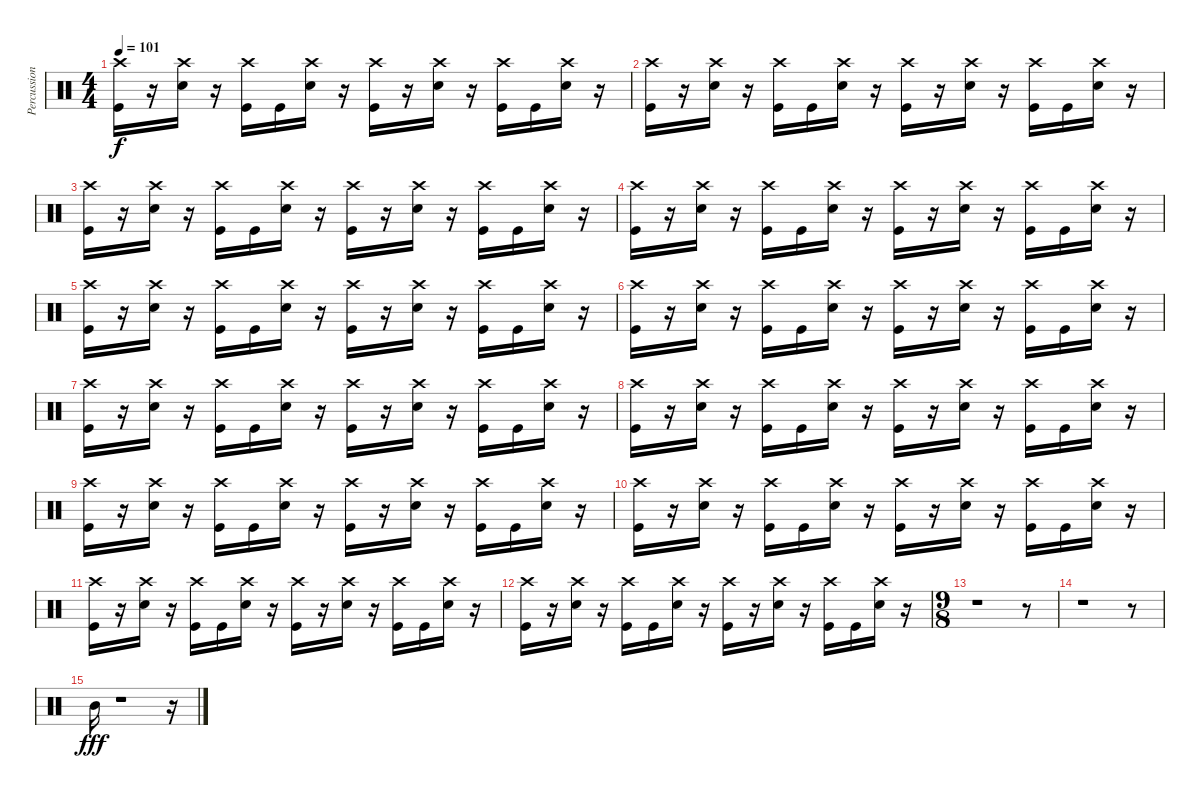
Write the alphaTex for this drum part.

\track ("Percussions" "Percussion") {instrument percussion}
\staff {score}
\articulation defaults
\ts (4 4)
\tempo 101
\clef neutral
\ks c
("Crash high (hit)" "Kick (hit)").16{dy f} r.16 ("Crash high (hit)" "Electric Snare (hit)").16 r.16 ("Crash high (hit)" "Kick (hit)").16 "Kick (hit)".16 ("Crash high (hit)" "Electric Snare (hit)").16 r.16 ("Crash high (hit)" "Kick (hit)").16 r.16 ("Crash high (hit)" "Electric Snare (hit)").16 r.16 ("Crash high (hit)" "Kick (hit)").16 "Kick (hit)".16 ("Crash high (hit)" "Electric Snare (hit)").16 r.16 |
("Crash high (hit)" "Kick (hit)").16 r.16 ("Crash high (hit)" "Electric Snare (hit)").16 r.16 ("Crash high (hit)" "Kick (hit)").16 "Kick (hit)".16 ("Crash high (hit)" "Electric Snare (hit)").16 r.16 ("Crash high (hit)" "Kick (hit)").16 r.16 ("Crash high (hit)" "Electric Snare (hit)").16 r.16 ("Crash high (hit)" "Kick (hit)").16 "Kick (hit)".16 ("Crash high (hit)" "Electric Snare (hit)").16 r.16 |
("Crash high (hit)" "Kick (hit)").16 r.16 ("Crash high (hit)" "Electric Snare (hit)").16 r.16 ("Crash high (hit)" "Kick (hit)").16 "Kick (hit)".16 ("Crash high (hit)" "Electric Snare (hit)").16 r.16 ("Crash high (hit)" "Kick (hit)").16 r.16 ("Crash high (hit)" "Electric Snare (hit)").16 r.16 ("Crash high (hit)" "Kick (hit)").16 "Kick (hit)".16 ("Crash high (hit)" "Electric Snare (hit)").16 r.16 |
("Crash high (hit)" "Kick (hit)").16 r.16 ("Crash high (hit)" "Electric Snare (hit)").16 r.16 ("Crash high (hit)" "Kick (hit)").16 "Kick (hit)".16 ("Crash high (hit)" "Electric Snare (hit)").16 r.16 ("Crash high (hit)" "Kick (hit)").16 r.16 ("Crash high (hit)" "Electric Snare (hit)").16 r.16 ("Crash high (hit)" "Kick (hit)").16 "Kick (hit)".16 ("Crash high (hit)" "Electric Snare (hit)").16 r.16 |
("Crash high (hit)" "Kick (hit)").16 r.16 ("Crash high (hit)" "Electric Snare (hit)").16 r.16 ("Crash high (hit)" "Kick (hit)").16 "Kick (hit)".16 ("Crash high (hit)" "Electric Snare (hit)").16 r.16 ("Crash high (hit)" "Kick (hit)").16 r.16 ("Crash high (hit)" "Electric Snare (hit)").16 r.16 ("Crash high (hit)" "Kick (hit)").16 "Kick (hit)".16 ("Crash high (hit)" "Electric Snare (hit)").16 r.16 |
("Crash high (hit)" "Kick (hit)").16 r.16 ("Crash high (hit)" "Electric Snare (hit)").16 r.16 ("Crash high (hit)" "Kick (hit)").16 "Kick (hit)".16 ("Crash high (hit)" "Electric Snare (hit)").16 r.16 ("Crash high (hit)" "Kick (hit)").16 r.16 ("Crash high (hit)" "Electric Snare (hit)").16 r.16 ("Crash high (hit)" "Kick (hit)").16 "Kick (hit)".16 ("Crash high (hit)" "Electric Snare (hit)").16 r.16 |
("Crash high (hit)" "Kick (hit)").16 r.16 ("Crash high (hit)" "Electric Snare (hit)").16 r.16 ("Crash high (hit)" "Kick (hit)").16 "Kick (hit)".16 ("Crash high (hit)" "Electric Snare (hit)").16 r.16 ("Crash high (hit)" "Kick (hit)").16 r.16 ("Crash high (hit)" "Electric Snare (hit)").16 r.16 ("Crash high (hit)" "Kick (hit)").16 "Kick (hit)".16 ("Crash high (hit)" "Electric Snare (hit)").16 r.16 |
("Crash high (hit)" "Kick (hit)").16 r.16 ("Crash high (hit)" "Electric Snare (hit)").16 r.16 ("Crash high (hit)" "Kick (hit)").16 "Kick (hit)".16 ("Crash high (hit)" "Electric Snare (hit)").16 r.16 ("Crash high (hit)" "Kick (hit)").16 r.16 ("Crash high (hit)" "Electric Snare (hit)").16 r.16 ("Crash high (hit)" "Kick (hit)").16 "Kick (hit)".16 ("Crash high (hit)" "Electric Snare (hit)").16 r.16 |
("Crash high (hit)" "Kick (hit)").16 r.16 ("Crash high (hit)" "Electric Snare (hit)").16 r.16 ("Crash high (hit)" "Kick (hit)").16 "Kick (hit)".16 ("Crash high (hit)" "Electric Snare (hit)").16 r.16 ("Crash high (hit)" "Kick (hit)").16 r.16 ("Crash high (hit)" "Electric Snare (hit)").16 r.16 ("Crash high (hit)" "Kick (hit)").16 "Kick (hit)".16 ("Crash high (hit)" "Electric Snare (hit)").16 r.16 |
("Crash high (hit)" "Kick (hit)").16 r.16 ("Crash high (hit)" "Electric Snare (hit)").16 r.16 ("Crash high (hit)" "Kick (hit)").16 "Kick (hit)".16 ("Crash high (hit)" "Electric Snare (hit)").16 r.16 ("Crash high (hit)" "Kick (hit)").16 r.16 ("Crash high (hit)" "Electric Snare (hit)").16 r.16 ("Crash high (hit)" "Kick (hit)").16 "Kick (hit)".16 ("Crash high (hit)" "Electric Snare (hit)").16 r.16 |
("Crash high (hit)" "Kick (hit)").16 r.16 ("Crash high (hit)" "Electric Snare (hit)").16 r.16 ("Crash high (hit)" "Kick (hit)").16 "Kick (hit)".16 ("Crash high (hit)" "Electric Snare (hit)").16 r.16 ("Crash high (hit)" "Kick (hit)").16 r.16 ("Crash high (hit)" "Electric Snare (hit)").16 r.16 ("Crash high (hit)" "Kick (hit)").16 "Kick (hit)".16 ("Crash high (hit)" "Electric Snare (hit)").16 r.16 |
("Crash high (hit)" "Kick (hit)").16 r.16 ("Crash high (hit)" "Electric Snare (hit)").16 r.16 ("Crash high (hit)" "Kick (hit)").16 "Kick (hit)".16 ("Crash high (hit)" "Electric Snare (hit)").16 r.16 ("Crash high (hit)" "Kick (hit)").16 r.16 ("Crash high (hit)" "Electric Snare (hit)").16 r.16 ("Crash high (hit)" "Kick (hit)").16 "Kick (hit)".16 ("Crash high (hit)" "Electric Snare (hit)").16 r.16 |
\ts (9 8)
r.1 r.8 |
r.1 r.8 |
"Mid Tom (hit)".16{dy fff} r.1 r.16
